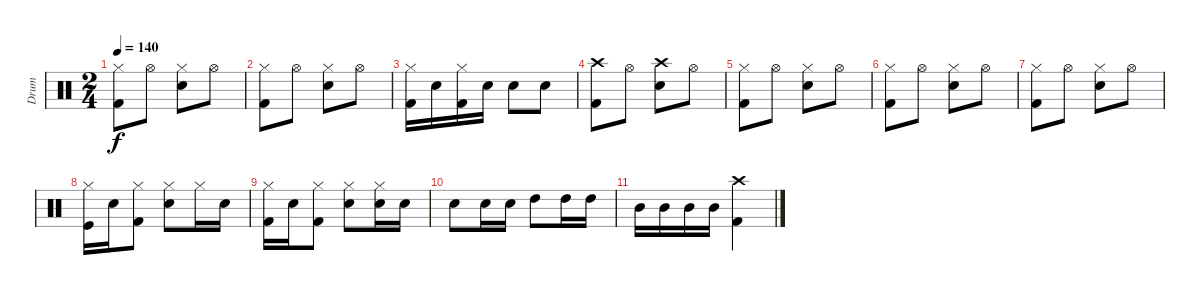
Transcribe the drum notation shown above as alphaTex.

\track ("Drum" "Drum") {instrument percussion}
\staff {score}
\articulation defaults
\ts (2 4)
\tempo 140
\clef neutral
\ks c
("Hi-Hat (closed)" "Kick (hit) 2").8{dy f} "Hi-Hat (open)".8 ("Hi-Hat (closed)" "Electric Snare (hit)").8 "Hi-Hat (open)".8 |
("Hi-Hat (closed)" "Kick (hit) 2").8 "Hi-Hat (open)".8 ("Hi-Hat (closed)" "Electric Snare (hit)").8 "Hi-Hat (open)".8 |
("Hi-Hat (closed)" "Kick (hit) 2").16 "Electric Snare (hit)".16 ("Hi-Hat (closed)" "Kick (hit) 2").16 "Electric Snare (hit)".16 "Electric Snare (hit)".8 "Electric Snare (hit)".8 |
("Crash high (hit)" "Kick (hit) 2").8 "Hi-Hat (open)".8 ("Crash high (hit)" "Electric Snare (hit)").8 "Hi-Hat (open)".8 |
("Kick (hit) 2" "Hi-Hat (closed)").8 "Hi-Hat (open)".8 ("Hi-Hat (closed)" "Electric Snare (hit)").8 "Hi-Hat (open)".8 |
("Kick (hit) 2" "Hi-Hat (closed)").8 "Hi-Hat (open)".8 ("Hi-Hat (closed)" "Electric Snare (hit)").8 "Hi-Hat (open)".8 |
("Kick (hit) 2" "Hi-Hat (closed)").8 "Hi-Hat (open)".8 ("Hi-Hat (closed)" "Electric Snare (hit)").8 "Hi-Hat (open)".8 |
("Kick (hit)" "Hi-Hat (closed)").16 "Electric Snare (hit)".16 ("Kick (hit) 2" "Hi-Hat (closed)").8 ("Electric Snare (hit)" "Hi-Hat (closed)").8 "Hi-Hat (closed)".16 "Electric Snare (hit)".16 |
("Kick (hit) 2" "Hi-Hat (closed)").16 "Electric Snare (hit)".16 ("Hi-Hat (closed)" "Kick (hit) 2").8 ("Electric Snare (hit)" "Hi-Hat (closed)").8 ("Hi-Hat (closed)" "Electric Snare (hit)").16 "Electric Snare (hit)".16 |
"Electric Snare (hit)".8 "Electric Snare (hit)".16 "Electric Snare (hit)".16 "High Tom (hit)".8 "High Tom (hit)".16 "High Tom (hit)".16 |
"Mid Tom (hit)".16 "Mid Tom (hit)".16 "Mid Tom (hit)".16 "Mid Tom (hit)".16 ("Crash high (hit)" "Kick (hit) 2").4
